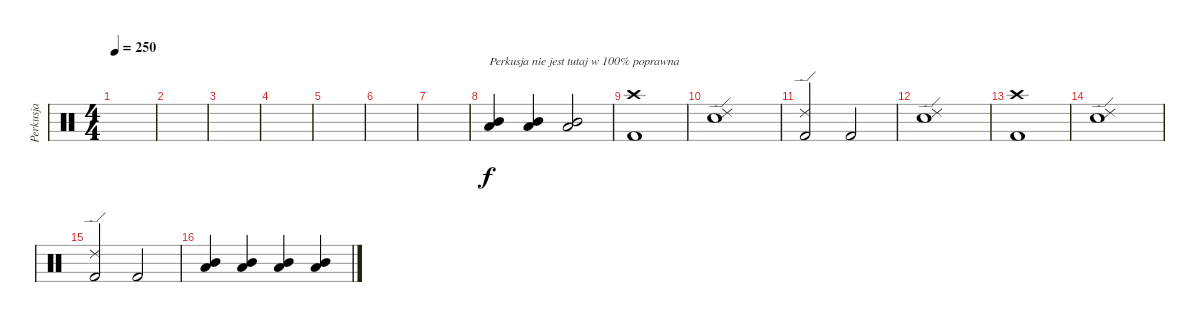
\track ("Perkusja" "Perkusja") {instrument percussion}
\staff {score}
\articulation defaults
\ts (4 4)
\tempo 250
\clef neutral
\ks c
|
|
|
|
|
|
|
("Mid Tom (hit)" "Low Tom (hit)").4{txt "Perkusja nie jest tutaj w 100% poprawna"} ("Mid Tom (hit)" "Low Tom (hit)").4 ("Mid Tom (hit)" "Low Tom (hit)").2 |
("Crash high (hit)" "Kick (hit) 2").1 |
("Ride (edge) 2" "Snare (hit) 2").1 |
("Ride (edge) 2" "Kick (hit) 2").2 "Kick (hit) 2".2 |
("Ride (edge) 2" "Snare (hit) 2").1 |
("Crash high (hit)" "Kick (hit) 2").1 |
("Ride (edge) 2" "Snare (hit) 2").1 |
("Ride (edge) 2" "Kick (hit) 2").2 "Kick (hit) 2".2 |
("Mid Tom (hit)" "Low Tom (hit)").4 ("Mid Tom (hit)" "Low Tom (hit)").4 ("Mid Tom (hit)" "Low Tom (hit)").4 ("Mid Tom (hit)" "Low Tom (hit)").4
